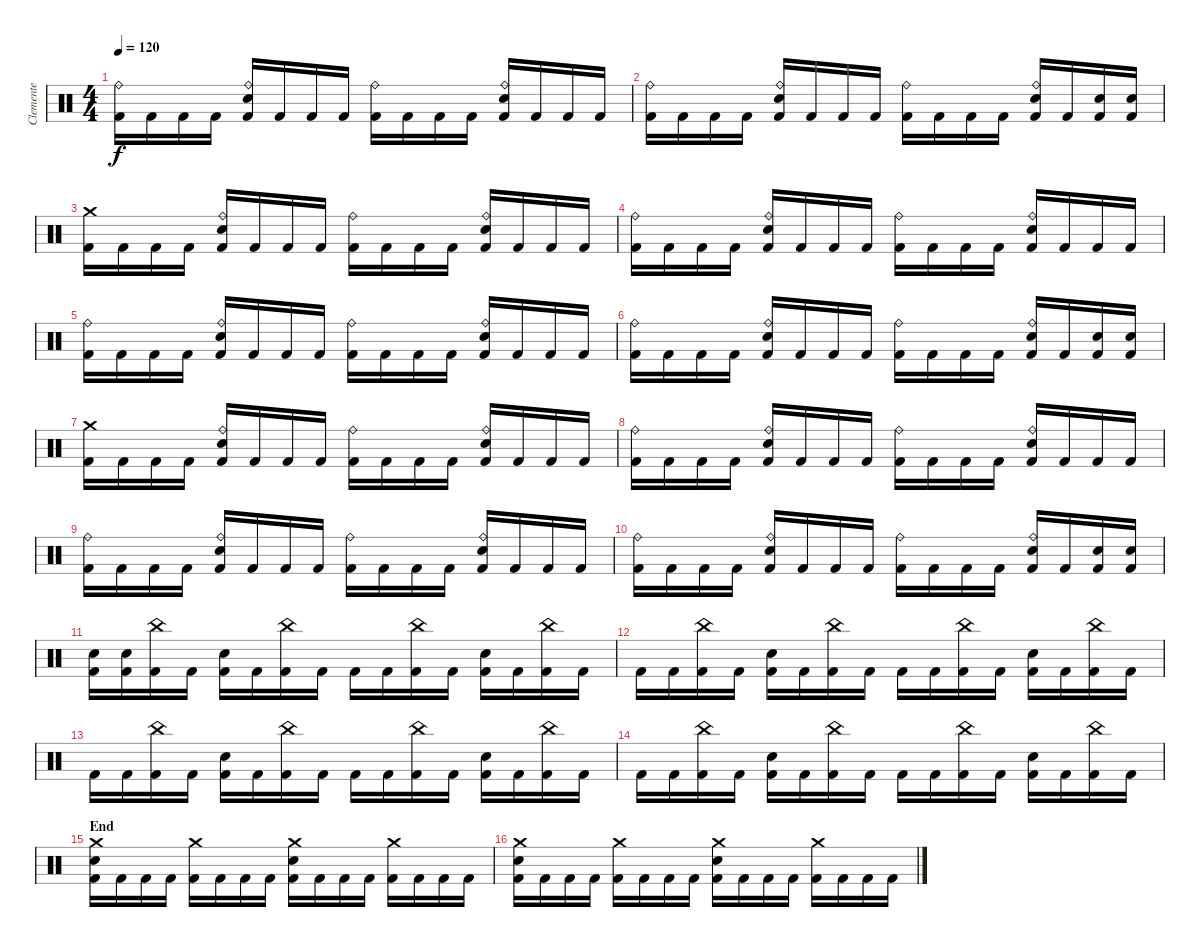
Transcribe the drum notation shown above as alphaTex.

\track ("Clemente" "Clemente") {instrument percussion}
\staff {score}
\articulation defaults
\ts (4 4)
\tempo 120
\clef neutral
\ks c
("Kick (hit) 2" "Ride (bell)").16{dy f} "Kick (hit) 2".16 "Kick (hit) 2".16 "Kick (hit) 2".16 ("Kick (hit) 2" "Electric Snare (hit)" "Ride (bell)").16 "Kick (hit) 2".16 "Kick (hit) 2".16 "Kick (hit) 2".16 ("Kick (hit) 2" "Ride (bell)").16 "Kick (hit) 2".16 "Kick (hit) 2".16 "Kick (hit) 2".16 ("Kick (hit) 2" "Electric Snare (hit)" "Ride (bell)").16 "Kick (hit) 2".16 "Kick (hit) 2".16 "Kick (hit) 2".16 |
("Kick (hit) 2" "Ride (bell)").16 "Kick (hit) 2".16 "Kick (hit) 2".16 "Kick (hit) 2".16 ("Kick (hit) 2" "Electric Snare (hit)" "Ride (bell)").16 "Kick (hit) 2".16 "Kick (hit) 2".16 "Kick (hit) 2".16 ("Kick (hit) 2" "Ride (bell)").16 "Kick (hit) 2".16 "Kick (hit) 2".16 "Kick (hit) 2".16 ("Kick (hit) 2" "Electric Snare (hit)" "Ride (bell)").16 "Kick (hit) 2".16 ("Kick (hit) 2" "Electric Snare (hit)").16 ("Kick (hit) 2" "Electric Snare (hit)").16 |
("Kick (hit) 2" "Crash medium (hit)").16 "Kick (hit) 2".16 "Kick (hit) 2".16 "Kick (hit) 2".16 ("Kick (hit) 2" "Electric Snare (hit)" "Ride (bell)").16 "Kick (hit) 2".16 "Kick (hit) 2".16 "Kick (hit) 2".16 ("Kick (hit) 2" "Ride (bell)").16 "Kick (hit) 2".16 "Kick (hit) 2".16 "Kick (hit) 2".16 ("Kick (hit) 2" "Electric Snare (hit)" "Ride (bell)").16 "Kick (hit) 2".16 "Kick (hit) 2".16 "Kick (hit) 2".16 |
("Kick (hit) 2" "Ride (bell)").16 "Kick (hit) 2".16 "Kick (hit) 2".16 "Kick (hit) 2".16 ("Kick (hit) 2" "Electric Snare (hit)" "Ride (bell)").16 "Kick (hit) 2".16 "Kick (hit) 2".16 "Kick (hit) 2".16 ("Kick (hit) 2" "Ride (bell)").16 "Kick (hit) 2".16 "Kick (hit) 2".16 "Kick (hit) 2".16 ("Kick (hit) 2" "Electric Snare (hit)" "Ride (bell)").16 "Kick (hit) 2".16 "Kick (hit) 2".16 "Kick (hit) 2".16 |
("Kick (hit) 2" "Ride (bell)").16 "Kick (hit) 2".16 "Kick (hit) 2".16 "Kick (hit) 2".16 ("Kick (hit) 2" "Electric Snare (hit)" "Ride (bell)").16 "Kick (hit) 2".16 "Kick (hit) 2".16 "Kick (hit) 2".16 ("Kick (hit) 2" "Ride (bell)").16 "Kick (hit) 2".16 "Kick (hit) 2".16 "Kick (hit) 2".16 ("Kick (hit) 2" "Electric Snare (hit)" "Ride (bell)").16 "Kick (hit) 2".16 "Kick (hit) 2".16 "Kick (hit) 2".16 |
("Kick (hit) 2" "Ride (bell)").16 "Kick (hit) 2".16 "Kick (hit) 2".16 "Kick (hit) 2".16 ("Kick (hit) 2" "Electric Snare (hit)" "Ride (bell)").16 "Kick (hit) 2".16 "Kick (hit) 2".16 "Kick (hit) 2".16 ("Kick (hit) 2" "Ride (bell)").16 "Kick (hit) 2".16 "Kick (hit) 2".16 "Kick (hit) 2".16 ("Kick (hit) 2" "Electric Snare (hit)" "Ride (bell)").16 "Kick (hit) 2".16 ("Kick (hit) 2" "Electric Snare (hit)").16 ("Kick (hit) 2" "Electric Snare (hit)").16 |
("Kick (hit) 2" "Crash medium (hit)").16 "Kick (hit) 2".16 "Kick (hit) 2".16 "Kick (hit) 2".16 ("Kick (hit) 2" "Electric Snare (hit)" "Ride (bell)").16 "Kick (hit) 2".16 "Kick (hit) 2".16 "Kick (hit) 2".16 ("Kick (hit) 2" "Ride (bell)").16 "Kick (hit) 2".16 "Kick (hit) 2".16 "Kick (hit) 2".16 ("Kick (hit) 2" "Electric Snare (hit)" "Ride (bell)").16 "Kick (hit) 2".16 "Kick (hit) 2".16 "Kick (hit) 2".16 |
("Kick (hit) 2" "Ride (bell)").16 "Kick (hit) 2".16 "Kick (hit) 2".16 "Kick (hit) 2".16 ("Kick (hit) 2" "Electric Snare (hit)" "Ride (bell)").16 "Kick (hit) 2".16 "Kick (hit) 2".16 "Kick (hit) 2".16 ("Kick (hit) 2" "Ride (bell)").16 "Kick (hit) 2".16 "Kick (hit) 2".16 "Kick (hit) 2".16 ("Kick (hit) 2" "Electric Snare (hit)" "Ride (bell)").16 "Kick (hit) 2".16 "Kick (hit) 2".16 "Kick (hit) 2".16 |
("Kick (hit) 2" "Ride (bell)").16 "Kick (hit) 2".16 "Kick (hit) 2".16 "Kick (hit) 2".16 ("Kick (hit) 2" "Electric Snare (hit)" "Ride (bell)").16 "Kick (hit) 2".16 "Kick (hit) 2".16 "Kick (hit) 2".16 ("Kick (hit) 2" "Ride (bell)").16 "Kick (hit) 2".16 "Kick (hit) 2".16 "Kick (hit) 2".16 ("Kick (hit) 2" "Electric Snare (hit)" "Ride (bell)").16 "Kick (hit) 2".16 "Kick (hit) 2".16 "Kick (hit) 2".16 |
("Kick (hit) 2" "Ride (bell)").16 "Kick (hit) 2".16 "Kick (hit) 2".16 "Kick (hit) 2".16 ("Kick (hit) 2" "Electric Snare (hit)" "Ride (bell)").16 "Kick (hit) 2".16 "Kick (hit) 2".16 "Kick (hit) 2".16 ("Kick (hit) 2" "Ride (bell)").16 "Kick (hit) 2".16 "Kick (hit) 2".16 "Kick (hit) 2".16 ("Kick (hit) 2" "Electric Snare (hit)" "Ride (bell)").16 "Kick (hit) 2".16 ("Kick (hit) 2" "Electric Snare (hit)").16 ("Kick (hit) 2" "Electric Snare (hit)").16 |
("Kick (hit) 2" "Electric Snare (hit)").16 ("Kick (hit) 2" "Electric Snare (hit)").16 ("Kick (hit) 2" "China (hit)").16 "Kick (hit) 2".16 ("Kick (hit) 2" "Electric Snare (hit)").16 "Kick (hit) 2".16 ("Kick (hit) 2" "China (hit)").16 "Kick (hit) 2".16 "Kick (hit) 2".16 "Kick (hit) 2".16 ("Kick (hit) 2" "China (hit)").16 "Kick (hit) 2".16 ("Kick (hit) 2" "Electric Snare (hit)").16 "Kick (hit) 2".16 ("Kick (hit) 2" "China (hit)").16 "Kick (hit) 2".16 |
"Kick (hit) 2".16 "Kick (hit) 2".16 ("Kick (hit) 2" "China (hit)").16 "Kick (hit) 2".16 ("Kick (hit) 2" "Electric Snare (hit)").16 "Kick (hit) 2".16 ("Kick (hit) 2" "China (hit)").16 "Kick (hit) 2".16 "Kick (hit) 2".16 "Kick (hit) 2".16 ("Kick (hit) 2" "China (hit)").16 "Kick (hit) 2".16 ("Kick (hit) 2" "Electric Snare (hit)").16 "Kick (hit) 2".16 ("Kick (hit) 2" "China (hit)").16 "Kick (hit) 2".16 |
"Kick (hit) 2".16 "Kick (hit) 2".16 ("Kick (hit) 2" "China (hit)").16 "Kick (hit) 2".16 ("Kick (hit) 2" "Electric Snare (hit)").16 "Kick (hit) 2".16 ("Kick (hit) 2" "China (hit)").16 "Kick (hit) 2".16 "Kick (hit) 2".16 "Kick (hit) 2".16 ("Kick (hit) 2" "China (hit)").16 "Kick (hit) 2".16 ("Kick (hit) 2" "Electric Snare (hit)").16 "Kick (hit) 2".16 ("Kick (hit) 2" "China (hit)").16 "Kick (hit) 2".16 |
"Kick (hit) 2".16 "Kick (hit) 2".16 ("Kick (hit) 2" "China (hit)").16 "Kick (hit) 2".16 ("Kick (hit) 2" "Electric Snare (hit)").16 "Kick (hit) 2".16 ("Kick (hit) 2" "China (hit)").16 "Kick (hit) 2".16 "Kick (hit) 2".16 "Kick (hit) 2".16 ("Kick (hit) 2" "China (hit)").16 "Kick (hit) 2".16 ("Kick (hit) 2" "Electric Snare (hit)").16 "Kick (hit) 2".16 ("Kick (hit) 2" "China (hit)").16 "Kick (hit) 2".16 |
\section ("" "End")
("Kick (hit) 2" "Electric Snare (hit)" "Crash medium (hit)").16 "Kick (hit) 2".16 "Kick (hit) 2".16 "Kick (hit) 2".16 ("Kick (hit) 2" "Crash medium (hit)").16 "Kick (hit) 2".16 "Kick (hit) 2".16 "Kick (hit) 2".16 ("Kick (hit) 2" "Electric Snare (hit)" "Crash medium (hit)").16 "Kick (hit) 2".16 "Kick (hit) 2".16 "Kick (hit) 2".16 ("Kick (hit) 2" "Crash medium (hit)").16 "Kick (hit) 2".16 "Kick (hit) 2".16 "Kick (hit) 2".16 |
("Kick (hit) 2" "Electric Snare (hit)" "Crash medium (hit)").16 "Kick (hit) 2".16 "Kick (hit) 2".16 "Kick (hit) 2".16 ("Kick (hit) 2" "Crash medium (hit)").16 "Kick (hit) 2".16 "Kick (hit) 2".16 "Kick (hit) 2".16 ("Kick (hit) 2" "Electric Snare (hit)" "Crash medium (hit)").16 "Kick (hit) 2".16 "Kick (hit) 2".16 "Kick (hit) 2".16 ("Kick (hit) 2" "Crash medium (hit)").16 "Kick (hit) 2".16 "Kick (hit) 2".16 "Kick (hit) 2".16
